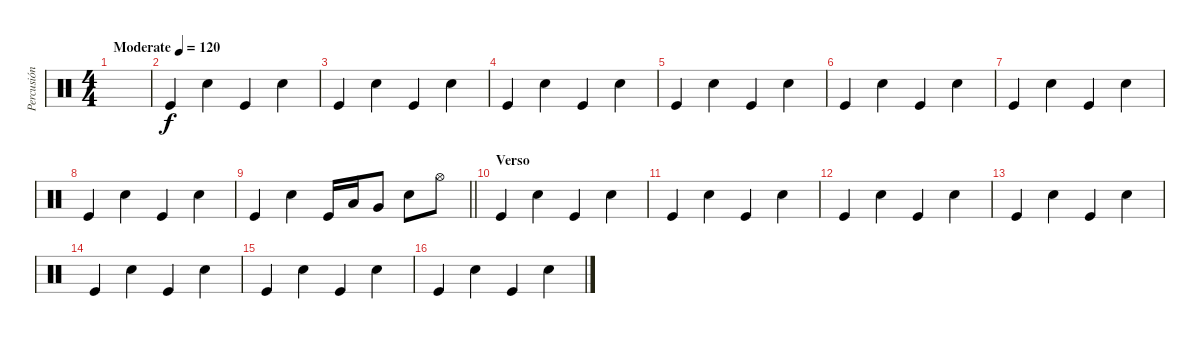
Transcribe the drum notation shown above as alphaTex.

\track ("Percusión" "Percusión") {instrument percussion}
\staff {score}
\articulation defaults
\ts (4 4)
\tempo (120 "Moderate")
\clef neutral
\ks c
|
"Kick (hit)".4 "Snare (hit) 2".4 "Kick (hit)".4 "Snare (hit) 2".4 |
"Kick (hit)".4 "Snare (hit) 2".4 "Kick (hit)".4 "Snare (hit) 2".4 |
"Kick (hit)".4 "Snare (hit) 2".4 "Kick (hit)".4 "Snare (hit) 2".4 |
"Kick (hit)".4 "Snare (hit) 2".4 "Kick (hit)".4 "Snare (hit) 2".4 |
"Kick (hit)".4 "Snare (hit) 2".4 "Kick (hit)".4 "Snare (hit) 2".4 |
"Kick (hit)".4 "Snare (hit) 2".4 "Kick (hit)".4 "Snare (hit) 2".4 |
"Kick (hit)".4 "Snare (hit) 2".4 "Kick (hit)".4 "Snare (hit) 2".4 |
\barLineRight lightlight "Kick (hit)".4 "Snare (hit) 2".4 "Kick (hit)".16 "Low Tom (hit)".16 "Very Low Tom (hit)".8 "Snare (hit) 2".8 "Hi-Hat (open)".8
|
\section ("" "Verso")
"Kick (hit)".4 "Snare (hit) 2".4 "Kick (hit)".4 "Snare (hit) 2".4 |
"Kick (hit)".4 "Snare (hit) 2".4 "Kick (hit)".4 "Snare (hit) 2".4 |
"Kick (hit)".4 "Snare (hit) 2".4 "Kick (hit)".4 "Snare (hit) 2".4 |
"Kick (hit)".4 "Snare (hit) 2".4 "Kick (hit)".4 "Snare (hit) 2".4 |
"Kick (hit)".4 "Snare (hit) 2".4 "Kick (hit)".4 "Snare (hit) 2".4 |
"Kick (hit)".4 "Snare (hit) 2".4 "Kick (hit)".4 "Snare (hit) 2".4 |
"Kick (hit)".4 "Snare (hit) 2".4 "Kick (hit)".4 "Snare (hit) 2".4
